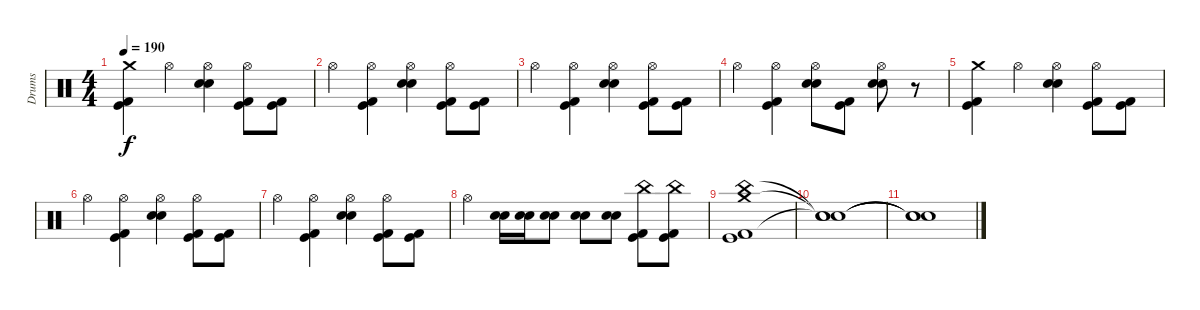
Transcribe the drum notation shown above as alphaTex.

\track ("Drums" "Drums") {instrument percussion}
\staff {score}
\articulation defaults
\ts (4 4)
\tempo 190
\clef neutral
\ks c
("Crash medium (hit)" "Kick (hit) 2" "Kick (hit)").4{dy f} "Hi-Hat (open)".4 ("Hi-Hat (open)" "Snare (hit) 2" "Snare (hit) 2").4 ("Hi-Hat (open)" "Kick (hit) 2" "Kick (hit)").8 ("Kick (hit) 2" "Kick (hit)").8 |
"Hi-Hat (open)".4 ("Hi-Hat (open)" "Kick (hit) 2" "Kick (hit)").4 ("Hi-Hat (open)" "Snare (hit) 2" "Snare (hit) 2").4 ("Hi-Hat (open)" "Kick (hit) 2" "Kick (hit)").8 ("Kick (hit) 2" "Kick (hit)").8 |
"Hi-Hat (open)".4 ("Hi-Hat (open)" "Kick (hit) 2" "Kick (hit)").4 ("Hi-Hat (open)" "Snare (hit) 2" "Snare (hit) 2").4 ("Hi-Hat (open)" "Kick (hit) 2" "Kick (hit)").8 ("Kick (hit) 2" "Kick (hit)").8 |
"Hi-Hat (open)".4 ("Hi-Hat (open)" "Kick (hit) 2" "Kick (hit)").4 ("Hi-Hat (open)" "Snare (hit) 2" "Snare (hit) 2").8 ("Kick (hit) 2" "Kick (hit)").8 ("Hi-Hat (open)" "Snare (hit) 2" "Snare (hit) 2").8 r.8 |
("Crash medium (hit)" "Kick (hit) 2" "Kick (hit)").4 "Hi-Hat (open)".4 ("Hi-Hat (open)" "Snare (hit) 2" "Snare (hit) 2").4 ("Hi-Hat (open)" "Kick (hit) 2" "Kick (hit)").8 ("Kick (hit) 2" "Kick (hit)").8 |
"Hi-Hat (open)".4 ("Hi-Hat (open)" "Kick (hit) 2" "Kick (hit)").4 ("Hi-Hat (open)" "Snare (hit) 2" "Snare (hit) 2").4 ("Hi-Hat (open)" "Kick (hit) 2" "Kick (hit)").8 ("Kick (hit) 2" "Kick (hit)").8 |
"Hi-Hat (open)".4 ("Hi-Hat (open)" "Kick (hit) 2" "Kick (hit)").4 ("Hi-Hat (open)" "Snare (hit) 2" "Snare (hit) 2").4 ("Hi-Hat (open)" "Kick (hit) 2" "Kick (hit)").8 ("Kick (hit) 2" "Kick (hit)").8 |
"Hi-Hat (open)".4 ("Snare (hit) 2" "Snare (hit) 2").16 ("Snare (hit) 2" "Snare (hit) 2").16 ("Snare (hit) 2" "Snare (hit) 2").8 ("Snare (hit) 2" "Snare (hit) 2").8 ("Snare (hit) 2" "Snare (hit) 2").8 ("China (hit)" "Kick (hit) 2" "Kick (hit)").8 ("China (hit)" "Kick (hit) 2" "Kick (hit)").8 |
("China (hit)" "Crash medium (hit)" "Kick (hit) 2" "Kick (hit)").1 |
("Snare (hit)"{t} "Snare (hit)"{t} "Snare (hit)"{t}).1 |
("Snare (hit)"{t} "Snare (hit)"{t} "Snare (hit)"{t}).1
